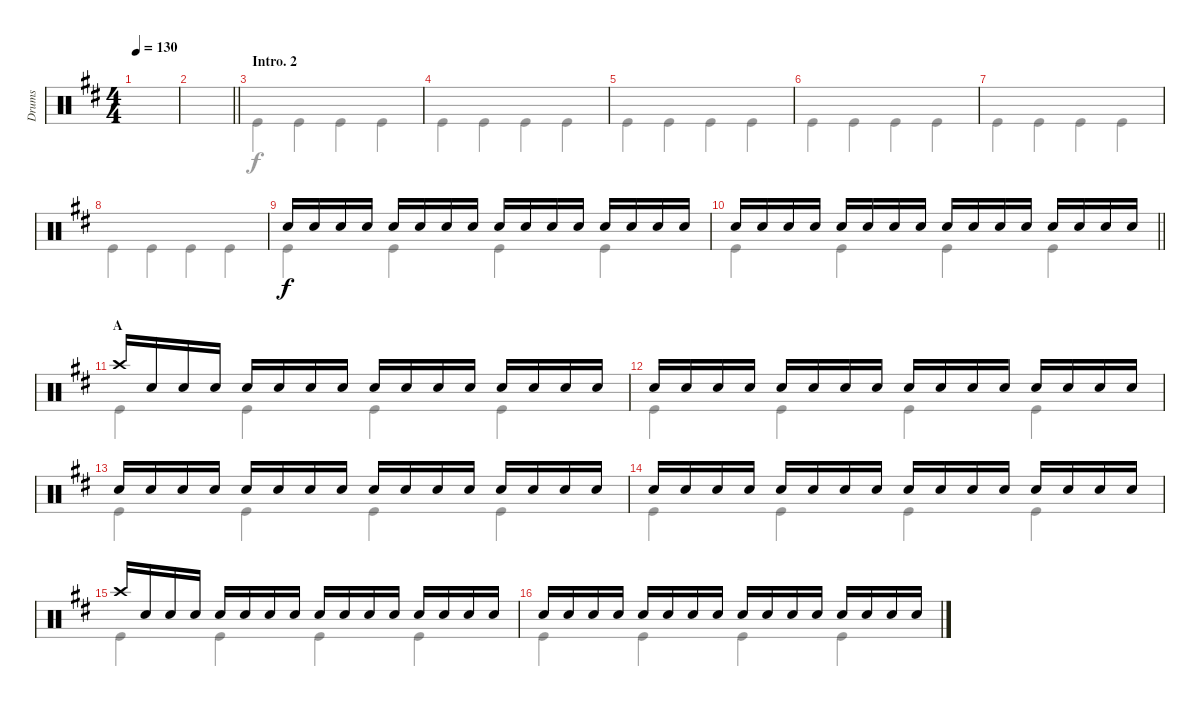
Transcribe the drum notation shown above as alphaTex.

\track ("Drums" "Drums") {instrument percussion}
\staff {score}
\articulation defaults
\voice
\ts (4 4)
\tempo 130
\clef neutral
\ks d
|
\barLineRight lightlight
|
\section ("" "Intro. 2")
|
|
|
|
|
|
"Snare (hit) 2".16 "Snare (hit) 2".16 "Snare (hit) 2".16 "Snare (hit) 2".16 "Snare (hit) 2".16 "Snare (hit) 2".16 "Snare (hit) 2".16 "Snare (hit) 2".16 "Snare (hit) 2".16 "Snare (hit) 2".16 "Snare (hit) 2".16 "Snare (hit) 2".16 "Snare (hit) 2".16 "Snare (hit) 2".16 "Snare (hit) 2".16 "Snare (hit) 2".16 |
\barLineRight lightlight "Snare (hit) 2".16 "Snare (hit) 2".16 "Snare (hit) 2".16 "Snare (hit) 2".16 "Snare (hit) 2".16 "Snare (hit) 2".16 "Snare (hit) 2".16 "Snare (hit) 2".16 "Snare (hit) 2".16 "Snare (hit) 2".16 "Snare (hit) 2".16 "Snare (hit) 2".16 "Snare (hit) 2".16 "Snare (hit) 2".16 "Snare (hit) 2".16 "Snare (hit) 2".16
|
\section ("" "A")
"Crash high (hit)".16 "Snare (hit) 2".16 "Snare (hit) 2".16 "Snare (hit) 2".16 "Snare (hit) 2".16 "Snare (hit) 2".16 "Snare (hit) 2".16 "Snare (hit) 2".16 "Snare (hit) 2".16 "Snare (hit) 2".16 "Snare (hit) 2".16 "Snare (hit) 2".16 "Snare (hit) 2".16 "Snare (hit) 2".16 "Snare (hit) 2".16 "Snare (hit) 2".16 |
"Snare (hit) 2".16 "Snare (hit) 2".16 "Snare (hit) 2".16 "Snare (hit) 2".16 "Snare (hit) 2".16 "Snare (hit) 2".16 "Snare (hit) 2".16 "Snare (hit) 2".16 "Snare (hit) 2".16 "Snare (hit) 2".16 "Snare (hit) 2".16 "Snare (hit) 2".16 "Snare (hit) 2".16 "Snare (hit) 2".16 "Snare (hit) 2".16 "Snare (hit) 2".16 |
"Snare (hit) 2".16 "Snare (hit) 2".16 "Snare (hit) 2".16 "Snare (hit) 2".16 "Snare (hit) 2".16 "Snare (hit) 2".16 "Snare (hit) 2".16 "Snare (hit) 2".16 "Snare (hit) 2".16 "Snare (hit) 2".16 "Snare (hit) 2".16 "Snare (hit) 2".16 "Snare (hit) 2".16 "Snare (hit) 2".16 "Snare (hit) 2".16 "Snare (hit) 2".16 |
"Snare (hit) 2".16 "Snare (hit) 2".16 "Snare (hit) 2".16 "Snare (hit) 2".16 "Snare (hit) 2".16 "Snare (hit) 2".16 "Snare (hit) 2".16 "Snare (hit) 2".16 "Snare (hit) 2".16 "Snare (hit) 2".16 "Snare (hit) 2".16 "Snare (hit) 2".16 "Snare (hit) 2".16 "Snare (hit) 2".16 "Snare (hit) 2".16 "Snare (hit) 2".16 |
"Crash high (hit)".16 "Snare (hit) 2".16 "Snare (hit) 2".16 "Snare (hit) 2".16 "Snare (hit) 2".16 "Snare (hit) 2".16 "Snare (hit) 2".16 "Snare (hit) 2".16 "Snare (hit) 2".16 "Snare (hit) 2".16 "Snare (hit) 2".16 "Snare (hit) 2".16 "Snare (hit) 2".16 "Snare (hit) 2".16 "Snare (hit) 2".16 "Snare (hit) 2".16 |
"Snare (hit) 2".16 "Snare (hit) 2".16 "Snare (hit) 2".16 "Snare (hit) 2".16 "Snare (hit) 2".16 "Snare (hit) 2".16 "Snare (hit) 2".16 "Snare (hit) 2".16 "Snare (hit) 2".16 "Snare (hit) 2".16 "Snare (hit) 2".16 "Snare (hit) 2".16 "Snare (hit) 2".16 "Snare (hit) 2".16 "Snare (hit) 2".16 "Snare (hit) 2".16
\voice
\clef neutral
\ottava regular
\simile none
\ks d
|
\barLineRight lightlight
|
"Kick (hit)".4 "Kick (hit)".4 "Kick (hit)".4 "Kick (hit)".4 |
"Kick (hit)".4 "Kick (hit)".4 "Kick (hit)".4 "Kick (hit)".4 |
"Kick (hit)".4 "Kick (hit)".4 "Kick (hit)".4 "Kick (hit)".4 |
"Kick (hit)".4 "Kick (hit)".4 "Kick (hit)".4 "Kick (hit)".4 |
"Kick (hit)".4 "Kick (hit)".4 "Kick (hit)".4 "Kick (hit)".4 |
"Kick (hit)".4 "Kick (hit)".4 "Kick (hit)".4 "Kick (hit)".4 |
"Kick (hit)".4 "Kick (hit)".4 "Kick (hit)".4 "Kick (hit)".4 |
\barLineRight lightlight "Kick (hit)".4 "Kick (hit)".4 "Kick (hit)".4 "Kick (hit)".4
|
"Kick (hit)".4 "Kick (hit)".4 "Kick (hit)".4 "Kick (hit)".4 |
"Kick (hit)".4 "Kick (hit)".4 "Kick (hit)".4 "Kick (hit)".4 |
"Kick (hit)".4 "Kick (hit)".4 "Kick (hit)".4 "Kick (hit)".4 |
"Kick (hit)".4 "Kick (hit)".4 "Kick (hit)".4 "Kick (hit)".4 |
"Kick (hit)".4 "Kick (hit)".4 "Kick (hit)".4 "Kick (hit)".4 |
"Kick (hit)".4 "Kick (hit)".4 "Kick (hit)".4 "Kick (hit)".4
